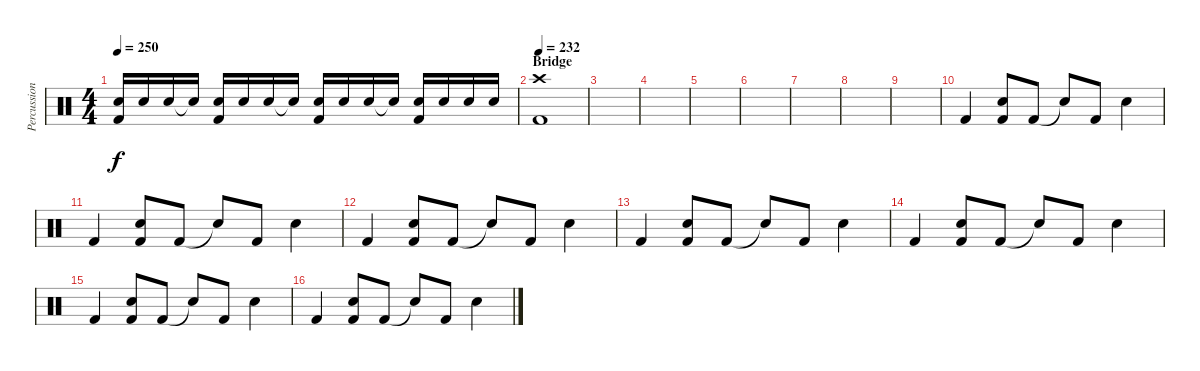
\track ("Percussion" "Percussion") {instrument percussion}
\staff {score}
\articulation defaults
\ts (4 4)
\tempo 250
\clef neutral
\ks c
("Electric Snare (hit)" "Kick (hit) 2").16{dy f} "Electric Snare (hit)".16 "Electric Snare (hit)".16 "Electric Snare (hit)"{t}.16 ("Electric Snare (hit)" "Kick (hit) 2").16 "Electric Snare (hit)".16 "Electric Snare (hit)".16 "Electric Snare (hit)"{t}.16 ("Electric Snare (hit)" "Kick (hit) 2").16 "Electric Snare (hit)".16 "Electric Snare (hit)".16 "Electric Snare (hit)"{t}.16 ("Electric Snare (hit)" "Kick (hit) 2").16 "Electric Snare (hit)".16 "Electric Snare (hit)".16 "Electric Snare (hit)".16 |
\section ("" "Bridge")
\tempo 232
("Crash high (hit)" "Kick (hit) 2").1 |
|
|
|
|
|
|
|
"Kick (hit) 2".4 ("Electric Snare (hit)" "Kick (hit) 2").8 "Kick (hit) 2".8 "Snare (hit)"{t}.8 "Kick (hit) 2".8 "Electric Snare (hit)".4 |
"Kick (hit) 2".4 ("Electric Snare (hit)" "Kick (hit) 2").8 "Kick (hit) 2".8 "Snare (hit)"{t}.8 "Kick (hit) 2".8 "Electric Snare (hit)".4 |
"Kick (hit) 2".4 ("Electric Snare (hit)" "Kick (hit) 2").8 "Kick (hit) 2".8 "Snare (hit)"{t}.8 "Kick (hit) 2".8 "Electric Snare (hit)".4 |
"Kick (hit) 2".4 ("Electric Snare (hit)" "Kick (hit) 2").8 "Kick (hit) 2".8 "Snare (hit)"{t}.8 "Kick (hit) 2".8 "Electric Snare (hit)".4 |
"Kick (hit) 2".4 ("Electric Snare (hit)" "Kick (hit) 2").8 "Kick (hit) 2".8 "Snare (hit)"{t}.8 "Kick (hit) 2".8 "Electric Snare (hit)".4 |
"Kick (hit) 2".4 ("Electric Snare (hit)" "Kick (hit) 2").8 "Kick (hit) 2".8 "Snare (hit)"{t}.8 "Kick (hit) 2".8 "Electric Snare (hit)".4 |
"Kick (hit) 2".4 ("Electric Snare (hit)" "Kick (hit) 2").8 "Kick (hit) 2".8 "Snare (hit)"{t}.8 "Kick (hit) 2".8 "Electric Snare (hit)".4
